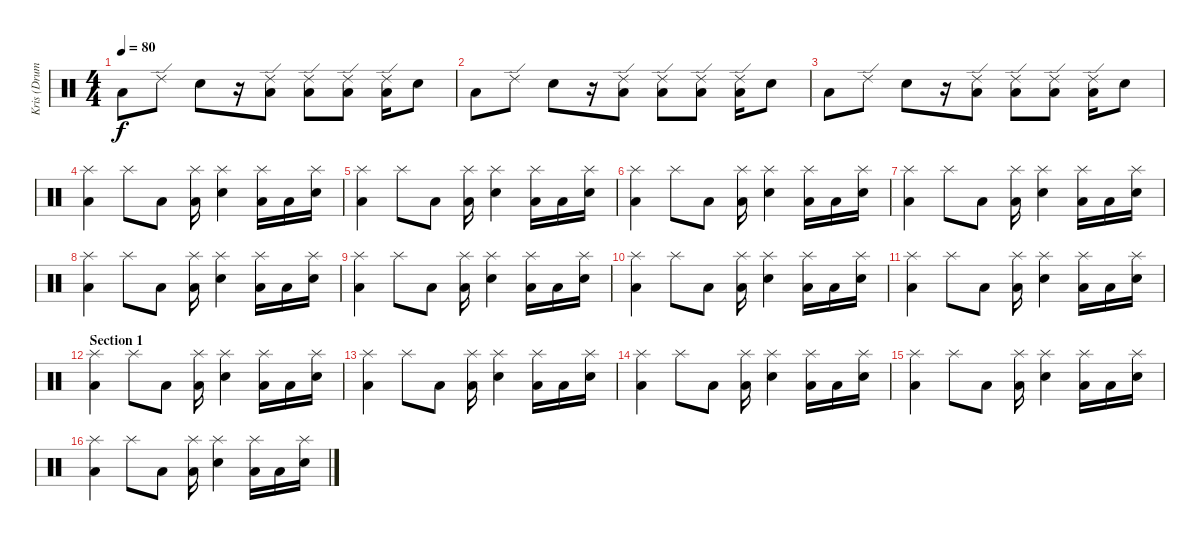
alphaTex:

\track ("Kris (Drums)" "Kris (Drum") {instrument percussion}
\staff {score}
\articulation defaults
\ts (4 4)
\tempo 80
\clef neutral
\ks c "Low Tom (hit)".8{dy f} "Ride (edge) 2".8 "Metronome (bell)".8
r.16 ("Ride (edge) 2" "Low Tom (hit)").8 ("Ride (edge) 2" "Low Tom (hit)").8 ("Ride (edge) 2" "Low Tom (hit)").8 ("Ride (edge) 2" "Low Tom (hit)").16 "Metronome (bell)".8 |
"Low Tom (hit)".8 "Ride (edge) 2".8 "Metronome (bell)".8 r.16 ("Ride (edge) 2" "Low Tom (hit)").8 ("Ride (edge) 2" "Low Tom (hit)").8 ("Ride (edge) 2" "Low Tom (hit)").8 ("Ride (edge) 2" "Low Tom (hit)").16 "Metronome (bell)".8 |
"Low Tom (hit)".8 "Ride (edge) 2".8 "Metronome (bell)".8 r.16 ("Ride (edge) 2" "Low Tom (hit)").8 ("Ride (edge) 2" "Low Tom (hit)").8 ("Ride (edge) 2" "Low Tom (hit)").8 ("Ride (edge) 2" "Low Tom (hit)").16 "Metronome (bell)".8 |
("Splash (hit)" "Low Tom (hit)").4 "Splash (hit)".8 "Low Tom (hit)".8 ("Splash (hit)" "Low Tom (hit)").16 ("Splash (hit)" "Metronome (bell)").4 ("Splash (hit)" "Low Tom (hit)").16 "Low Tom (hit)".16 ("Splash (hit)" "Metronome (bell)").16 |
("Splash (hit)" "Low Tom (hit)").4 "Splash (hit)".8 "Low Tom (hit)".8 ("Splash (hit)" "Low Tom (hit)").16 ("Splash (hit)" "Metronome (bell)").4 ("Splash (hit)" "Low Tom (hit)").16 "Low Tom (hit)".16 ("Splash (hit)" "Metronome (bell)").16 |
("Splash (hit)" "Low Tom (hit)").4 "Splash (hit)".8 "Low Tom (hit)".8 ("Splash (hit)" "Low Tom (hit)").16 ("Splash (hit)" "Metronome (bell)").4 ("Splash (hit)" "Low Tom (hit)").16 "Low Tom (hit)".16 ("Splash (hit)" "Metronome (bell)").16 |
("Splash (hit)" "Low Tom (hit)").4 "Splash (hit)".8 "Low Tom (hit)".8 ("Splash (hit)" "Low Tom (hit)").16 ("Splash (hit)" "Metronome (bell)").4 ("Splash (hit)" "Low Tom (hit)").16 "Low Tom (hit)".16 ("Splash (hit)" "Metronome (bell)").16 |
("Splash (hit)" "Low Tom (hit)").4 "Splash (hit)".8 "Low Tom (hit)".8 ("Splash (hit)" "Low Tom (hit)").16 ("Splash (hit)" "Metronome (bell)").4 ("Splash (hit)" "Low Tom (hit)").16 "Low Tom (hit)".16 ("Splash (hit)" "Metronome (bell)").16 |
("Splash (hit)" "Low Tom (hit)").4 "Splash (hit)".8 "Low Tom (hit)".8 ("Splash (hit)" "Low Tom (hit)").16 ("Splash (hit)" "Metronome (bell)").4 ("Splash (hit)" "Low Tom (hit)").16 "Low Tom (hit)".16 ("Splash (hit)" "Metronome (bell)").16 |
("Splash (hit)" "Low Tom (hit)").4 "Splash (hit)".8 "Low Tom (hit)".8 ("Splash (hit)" "Low Tom (hit)").16 ("Splash (hit)" "Metronome (bell)").4 ("Splash (hit)" "Low Tom (hit)").16 "Low Tom (hit)".16 ("Splash (hit)" "Metronome (bell)").16 |
("Splash (hit)" "Low Tom (hit)").4 "Splash (hit)".8 "Low Tom (hit)".8 ("Splash (hit)" "Low Tom (hit)").16 ("Splash (hit)" "Metronome (bell)").4 ("Splash (hit)" "Low Tom (hit)").16 "Low Tom (hit)".16 ("Splash (hit)" "Metronome (bell)").16 |
\section ("" "Section 1")
("Splash (hit)" "Low Tom (hit)").4 "Splash (hit)".8 "Low Tom (hit)".8 ("Splash (hit)" "Low Tom (hit)").16 ("Splash (hit)" "Metronome (bell)").4 ("Splash (hit)" "Low Tom (hit)").16 "Low Tom (hit)".16 ("Splash (hit)" "Metronome (bell)").16 |
("Splash (hit)" "Low Tom (hit)").4 "Splash (hit)".8 "Low Tom (hit)".8 ("Splash (hit)" "Low Tom (hit)").16 ("Splash (hit)" "Metronome (bell)").4 ("Splash (hit)" "Low Tom (hit)").16 "Low Tom (hit)".16 ("Splash (hit)" "Metronome (bell)").16 |
("Splash (hit)" "Low Tom (hit)").4 "Splash (hit)".8 "Low Tom (hit)".8 ("Splash (hit)" "Low Tom (hit)").16 ("Splash (hit)" "Metronome (bell)").4 ("Splash (hit)" "Low Tom (hit)").16 "Low Tom (hit)".16 ("Splash (hit)" "Metronome (bell)").16 |
("Splash (hit)" "Low Tom (hit)").4 "Splash (hit)".8 "Low Tom (hit)".8 ("Splash (hit)" "Low Tom (hit)").16 ("Splash (hit)" "Metronome (bell)").4 ("Splash (hit)" "Low Tom (hit)").16 "Low Tom (hit)".16 ("Splash (hit)" "Metronome (bell)").16 |
("Splash (hit)" "Low Tom (hit)").4 "Splash (hit)".8 "Low Tom (hit)".8 ("Splash (hit)" "Low Tom (hit)").16 ("Splash (hit)" "Metronome (bell)").4 ("Splash (hit)" "Low Tom (hit)").16 "Low Tom (hit)".16 ("Splash (hit)" "Metronome (bell)").16
